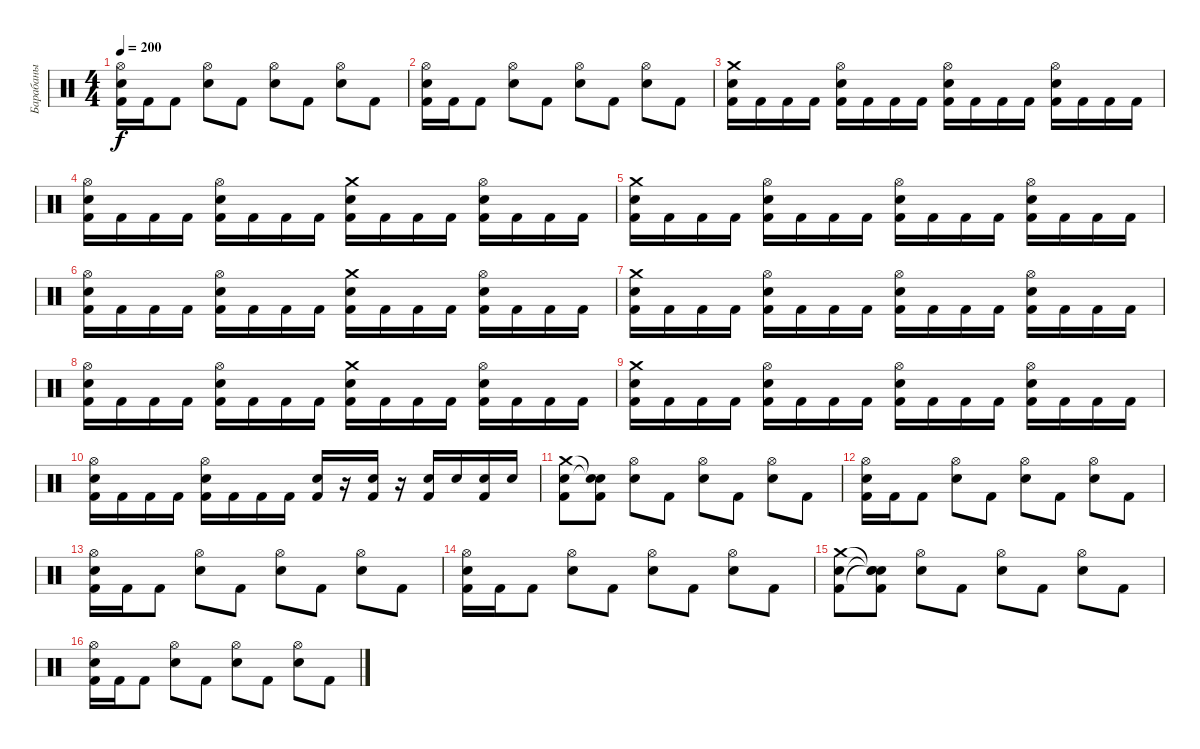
\track ("Барабаны" "Барабаны") {instrument percussion}
\staff {score}
\articulation defaults
\ts (4 4)
\tempo 200
\clef neutral
\ks c
("Hi-Hat (open)" "Electric Snare (hit)" "Kick (hit) 2").16{dy f} "Kick (hit) 2".16 "Kick (hit) 2".8 ("Hi-Hat (open)" "Electric Snare (hit)").8 "Kick (hit) 2".8 ("Hi-Hat (open)" "Electric Snare (hit)").8 "Kick (hit) 2".8 ("Hi-Hat (open)" "Electric Snare (hit)").8 "Kick (hit) 2".8 |
("Hi-Hat (open)" "Electric Snare (hit)" "Kick (hit) 2").16 "Kick (hit) 2".16 "Kick (hit) 2".8 ("Hi-Hat (open)" "Electric Snare (hit)").8 "Kick (hit) 2".8 ("Hi-Hat (open)" "Electric Snare (hit)").8 "Kick (hit) 2".8 ("Hi-Hat (open)" "Electric Snare (hit)").8 "Kick (hit) 2".8 |
("Crash medium (hit)" "Electric Snare (hit)" "Kick (hit) 2").16 "Kick (hit) 2".16 "Kick (hit) 2".16 "Kick (hit) 2".16 ("Hi-Hat (open)" "Electric Snare (hit)" "Kick (hit) 2").16 "Kick (hit) 2".16 "Kick (hit) 2".16 "Kick (hit) 2".16 ("Hi-Hat (open)" "Electric Snare (hit)" "Kick (hit) 2").16 "Kick (hit) 2".16 "Kick (hit) 2".16 "Kick (hit) 2".16 ("Hi-Hat (open)" "Electric Snare (hit)" "Kick (hit) 2").16 "Kick (hit) 2".16 "Kick (hit) 2".16 "Kick (hit) 2".16 |
("Hi-Hat (open)" "Electric Snare (hit)" "Kick (hit) 2").16 "Kick (hit) 2".16 "Kick (hit) 2".16 "Kick (hit) 2".16 ("Hi-Hat (open)" "Electric Snare (hit)" "Kick (hit) 2").16 "Kick (hit) 2".16 "Kick (hit) 2".16 "Kick (hit) 2".16 ("Crash medium (hit)" "Electric Snare (hit)" "Kick (hit) 2").16 "Kick (hit) 2".16 "Kick (hit) 2".16 "Kick (hit) 2".16 ("Hi-Hat (open)" "Electric Snare (hit)" "Kick (hit) 2").16 "Kick (hit) 2".16 "Kick (hit) 2".16 "Kick (hit) 2".16 |
("Crash medium (hit)" "Electric Snare (hit)" "Kick (hit) 2").16 "Kick (hit) 2".16 "Kick (hit) 2".16 "Kick (hit) 2".16 ("Hi-Hat (open)" "Electric Snare (hit)" "Kick (hit) 2").16 "Kick (hit) 2".16 "Kick (hit) 2".16 "Kick (hit) 2".16 ("Hi-Hat (open)" "Electric Snare (hit)" "Kick (hit) 2").16 "Kick (hit) 2".16 "Kick (hit) 2".16 "Kick (hit) 2".16 ("Hi-Hat (open)" "Electric Snare (hit)" "Kick (hit) 2").16 "Kick (hit) 2".16 "Kick (hit) 2".16 "Kick (hit) 2".16 |
("Hi-Hat (open)" "Electric Snare (hit)" "Kick (hit) 2").16 "Kick (hit) 2".16 "Kick (hit) 2".16 "Kick (hit) 2".16 ("Hi-Hat (open)" "Electric Snare (hit)" "Kick (hit) 2").16 "Kick (hit) 2".16 "Kick (hit) 2".16 "Kick (hit) 2".16 ("Crash medium (hit)" "Electric Snare (hit)" "Kick (hit) 2").16 "Kick (hit) 2".16 "Kick (hit) 2".16 "Kick (hit) 2".16 ("Hi-Hat (open)" "Electric Snare (hit)" "Kick (hit) 2").16 "Kick (hit) 2".16 "Kick (hit) 2".16 "Kick (hit) 2".16 |
("Crash medium (hit)" "Electric Snare (hit)" "Kick (hit) 2").16 "Kick (hit) 2".16 "Kick (hit) 2".16 "Kick (hit) 2".16 ("Hi-Hat (open)" "Electric Snare (hit)" "Kick (hit) 2").16 "Kick (hit) 2".16 "Kick (hit) 2".16 "Kick (hit) 2".16 ("Hi-Hat (open)" "Electric Snare (hit)" "Kick (hit) 2").16 "Kick (hit) 2".16 "Kick (hit) 2".16 "Kick (hit) 2".16 ("Hi-Hat (open)" "Electric Snare (hit)" "Kick (hit) 2").16 "Kick (hit) 2".16 "Kick (hit) 2".16 "Kick (hit) 2".16 |
("Hi-Hat (open)" "Electric Snare (hit)" "Kick (hit) 2").16 "Kick (hit) 2".16 "Kick (hit) 2".16 "Kick (hit) 2".16 ("Hi-Hat (open)" "Electric Snare (hit)" "Kick (hit) 2").16 "Kick (hit) 2".16 "Kick (hit) 2".16 "Kick (hit) 2".16 ("Crash medium (hit)" "Electric Snare (hit)" "Kick (hit) 2").16 "Kick (hit) 2".16 "Kick (hit) 2".16 "Kick (hit) 2".16 ("Hi-Hat (open)" "Electric Snare (hit)" "Kick (hit) 2").16 "Kick (hit) 2".16 "Kick (hit) 2".16 "Kick (hit) 2".16 |
("Crash medium (hit)" "Electric Snare (hit)" "Kick (hit) 2").16 "Kick (hit) 2".16 "Kick (hit) 2".16 "Kick (hit) 2".16 ("Hi-Hat (open)" "Electric Snare (hit)" "Kick (hit) 2").16 "Kick (hit) 2".16 "Kick (hit) 2".16 "Kick (hit) 2".16 ("Hi-Hat (open)" "Electric Snare (hit)" "Kick (hit) 2").16 "Kick (hit) 2".16 "Kick (hit) 2".16 "Kick (hit) 2".16 ("Hi-Hat (open)" "Electric Snare (hit)" "Kick (hit) 2").16 "Kick (hit) 2".16 "Kick (hit) 2".16 "Kick (hit) 2".16 |
("Hi-Hat (open)" "Electric Snare (hit)" "Kick (hit) 2").16 "Kick (hit) 2".16 "Kick (hit) 2".16 "Kick (hit) 2".16 ("Hi-Hat (open)" "Electric Snare (hit)" "Kick (hit) 2").16 "Kick (hit) 2".16 "Kick (hit) 2".16 "Kick (hit) 2".16 ("Electric Snare (hit)" "Kick (hit) 2").16 r.16 ("Electric Snare (hit)" "Kick (hit) 2").16 r.16 ("Electric Snare (hit)" "Kick (hit) 2").16 "Electric Snare (hit)".16 ("Electric Snare (hit)" "Kick (hit) 2").16 "Electric Snare (hit)".16 |
("Crash medium (hit)" "Electric Snare (hit)" "Kick (hit) 2").8 ("Snare (hit)"{t} "Snare (hit)"{t} "Kick (hit) 2").8 ("Hi-Hat (open)" "Electric Snare (hit)").8 "Kick (hit) 2".8 ("Hi-Hat (open)" "Electric Snare (hit)").8 "Kick (hit) 2".8 ("Hi-Hat (open)" "Electric Snare (hit)").8 "Kick (hit) 2".8 |
("Hi-Hat (open)" "Electric Snare (hit)" "Kick (hit) 2").16 "Kick (hit) 2".16 "Kick (hit) 2".8 ("Hi-Hat (open)" "Electric Snare (hit)").8 "Kick (hit) 2".8 ("Hi-Hat (open)" "Electric Snare (hit)").8 "Kick (hit) 2".8 ("Hi-Hat (open)" "Electric Snare (hit)").8 "Kick (hit) 2".8 |
("Hi-Hat (open)" "Electric Snare (hit)" "Kick (hit) 2").16 "Kick (hit) 2".16 "Kick (hit) 2".8 ("Hi-Hat (open)" "Electric Snare (hit)").8 "Kick (hit) 2".8 ("Hi-Hat (open)" "Electric Snare (hit)").8 "Kick (hit) 2".8 ("Hi-Hat (open)" "Electric Snare (hit)").8 "Kick (hit) 2".8 |
("Hi-Hat (open)" "Electric Snare (hit)" "Kick (hit) 2").16 "Kick (hit) 2".16 "Kick (hit) 2".8 ("Hi-Hat (open)" "Electric Snare (hit)").8 "Kick (hit) 2".8 ("Hi-Hat (open)" "Electric Snare (hit)").8 "Kick (hit) 2".8 ("Hi-Hat (open)" "Electric Snare (hit)").8 "Kick (hit) 2".8 |
("Crash medium (hit)" "Electric Snare (hit)" "Kick (hit) 2").8 ("Snare (hit)"{t} "Snare (hit)"{t} "Snare (hit)"{t} "Kick (hit) 2").8 ("Hi-Hat (open)" "Electric Snare (hit)").8 "Kick (hit) 2".8 ("Hi-Hat (open)" "Electric Snare (hit)").8 "Kick (hit) 2".8 ("Hi-Hat (open)" "Electric Snare (hit)").8 "Kick (hit) 2".8 |
("Hi-Hat (open)" "Electric Snare (hit)" "Kick (hit) 2").16 "Kick (hit) 2".16 "Kick (hit) 2".8 ("Hi-Hat (open)" "Electric Snare (hit)").8 "Kick (hit) 2".8 ("Hi-Hat (open)" "Electric Snare (hit)").8 "Kick (hit) 2".8 ("Hi-Hat (open)" "Electric Snare (hit)").8 "Kick (hit) 2".8
